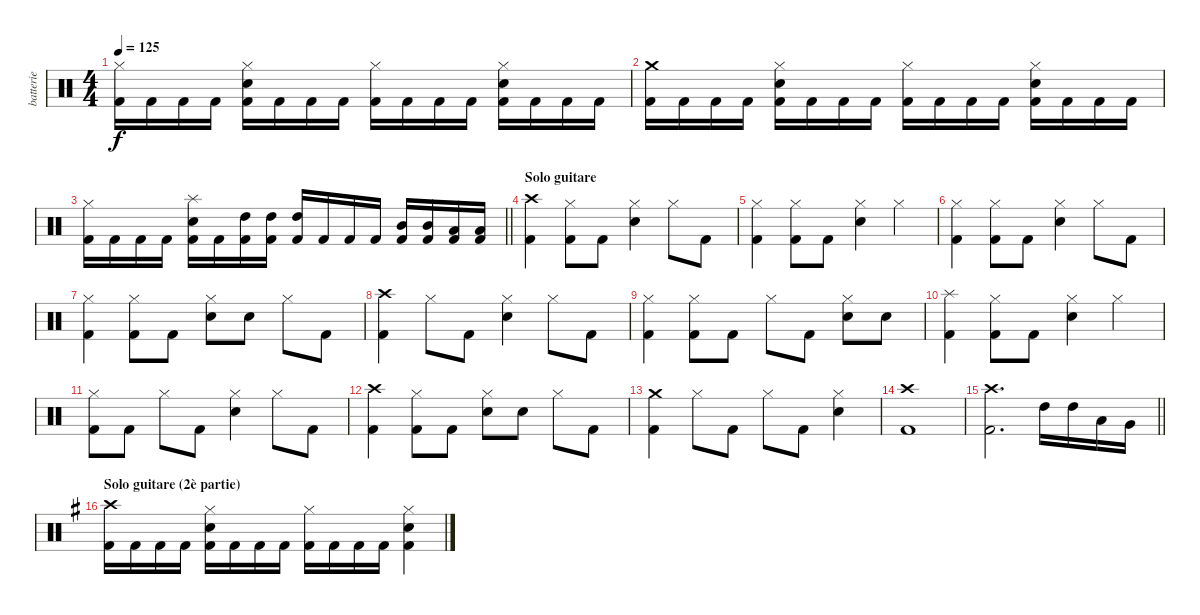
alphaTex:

\track ("batterie" "batterie") {instrument percussion}
\staff {score}
\articulation defaults
\ts (4 4)
\tempo 125
\clef neutral
\ks aminor
("Hi-Hat (closed)" "Kick (hit) 2").16{dy f} "Kick (hit) 2".16 "Kick (hit) 2".16 "Kick (hit) 2".16 ("Hi-Hat (closed)" "Electric Snare (hit)" "Kick (hit) 2").16 "Kick (hit) 2".16 "Kick (hit) 2".16 "Kick (hit) 2".16 ("Hi-Hat (closed)" "Kick (hit) 2").16 "Kick (hit) 2".16 "Kick (hit) 2".16 "Kick (hit) 2".16 ("Hi-Hat (closed)" "Electric Snare (hit)" "Kick (hit) 2").16 "Kick (hit) 2".16 "Kick (hit) 2".16 "Kick (hit) 2".16 |
("Crash medium (hit)" "Kick (hit) 2").16 "Kick (hit) 2".16 "Kick (hit) 2".16 "Kick (hit) 2".16 ("Hi-Hat (closed)" "Electric Snare (hit)" "Kick (hit) 2").16 "Kick (hit) 2".16 "Kick (hit) 2".16 "Kick (hit) 2".16 ("Hi-Hat (closed)" "Kick (hit) 2").16 "Kick (hit) 2".16 "Kick (hit) 2".16 "Kick (hit) 2".16 ("Hi-Hat (closed)" "Electric Snare (hit)" "Kick (hit) 2").16 "Kick (hit) 2".16 "Kick (hit) 2".16 "Kick (hit) 2".16 |
\barLineRight lightlight
("Hi-Hat (closed)" "Kick (hit) 2").16 "Kick (hit) 2".16 "Kick (hit) 2".16 "Kick (hit) 2".16 ("Splash (hit)" "Electric Snare (hit)" "Kick (hit) 2").16 "Kick (hit) 2".16 ("High Tom (hit)" "Kick (hit) 2").16 ("High Tom (hit)" "Kick (hit) 2").16 ("High Tom (hit)" "Kick (hit) 2").16 "Kick (hit) 2".16 "Kick (hit) 2".16 "Kick (hit) 2".16 ("Mid Tom (hit)" "Kick (hit) 2").16 ("Mid Tom (hit)" "Kick (hit) 2").16 ("Low Tom (hit)" "Kick (hit) 2").16 ("Low Tom (hit)" "Kick (hit) 2").16 |
\section ("" "Solo guitare")
("Crash high (hit)" "Kick (hit) 2").4 ("Hi-Hat (closed)" "Kick (hit) 2").8 "Kick (hit) 2".8 ("Hi-Hat (closed)" "Electric Snare (hit)").4 "Hi-Hat (closed)".8 "Kick (hit) 2".8 |
\ks c
("Hi-Hat (closed)" "Kick (hit) 2").4 ("Hi-Hat (closed)" "Kick (hit) 2").8 "Kick (hit) 2".8 ("Hi-Hat (closed)" "Electric Snare (hit)").4 "Hi-Hat (closed)".4 |
\ks aminor
("Hi-Hat (closed)" "Kick (hit) 2").4 ("Hi-Hat (closed)" "Kick (hit) 2").8 "Kick (hit) 2".8 ("Hi-Hat (closed)" "Electric Snare (hit)").4 "Hi-Hat (closed)".8 "Kick (hit) 2".8 |
("Hi-Hat (closed)" "Kick (hit) 2").4 ("Hi-Hat (closed)" "Kick (hit) 2").8 "Kick (hit) 2".8 ("Hi-Hat (closed)" "Electric Snare (hit)").8 "Electric Snare (hit)".8 "Hi-Hat (closed)".8 "Kick (hit) 2".8 |
("Crash high (hit)" "Kick (hit) 2").4 "Hi-Hat (closed)".8 "Kick (hit) 2".8 ("Hi-Hat (closed)" "Electric Snare (hit)").4 "Hi-Hat (closed)".8 "Kick (hit) 2".8 |
("Hi-Hat (closed)" "Kick (hit) 2").4 ("Hi-Hat (closed)" "Kick (hit) 2").8 "Kick (hit) 2".8 "Hi-Hat (closed)".8 "Kick (hit) 2".8 ("Hi-Hat (closed)" "Electric Snare (hit)").8 "Electric Snare (hit)".8 |
("Splash (hit)" "Kick (hit) 2").4 ("Hi-Hat (closed)" "Kick (hit) 2").8 "Kick (hit) 2".8 ("Hi-Hat (closed)" "Electric Snare (hit)").4 "Hi-Hat (closed)".4 |
\ks c
("Hi-Hat (closed)" "Kick (hit) 2").8 "Kick (hit) 2".8 "Hi-Hat (closed)".8 "Kick (hit) 2".8 ("Hi-Hat (closed)" "Electric Snare (hit)").4 "Hi-Hat (closed)".8 "Kick (hit) 2".8 |
\ks aminor
("Crash high (hit)" "Kick (hit) 2").4 ("Hi-Hat (closed)" "Kick (hit) 2").8 "Kick (hit) 2".8 ("Hi-Hat (closed)" "Electric Snare (hit)").8 "Electric Snare (hit)".8 "Hi-Hat (closed)".8 "Kick (hit) 2".8 |
("Crash medium (hit)" "Kick (hit) 2").4 "Hi-Hat (closed)".8 "Kick (hit) 2".8 "Hi-Hat (closed)".8 "Kick (hit) 2".8 ("Hi-Hat (closed)" "Electric Snare (hit)").4 |
("Crash high (hit)" "Kick (hit) 2").1 |
\barLineRight lightlight
("Crash high (hit)" "Kick (hit) 2").2{d} "High Tom (hit)".16 "High Tom (hit)".16 "Low Tom (hit)".16 "Very Low Tom (hit)".16 |
\section ("" "Solo guitare (2è partie)")
\ks eminor
("Crash high (hit)" "Kick (hit) 2").16 "Kick (hit) 2".16 "Kick (hit) 2".16 "Kick (hit) 2".16 ("Hi-Hat (closed)" "Electric Snare (hit)" "Kick (hit) 2").16 "Kick (hit) 2".16 "Kick (hit) 2".16 "Kick (hit) 2".16 ("Hi-Hat (closed)" "Kick (hit) 2").16 "Kick (hit) 2".16 "Kick (hit) 2".16 "Kick (hit) 2".16 ("Hi-Hat (closed)" "Electric Snare (hit)" "Kick (hit) 2").4
